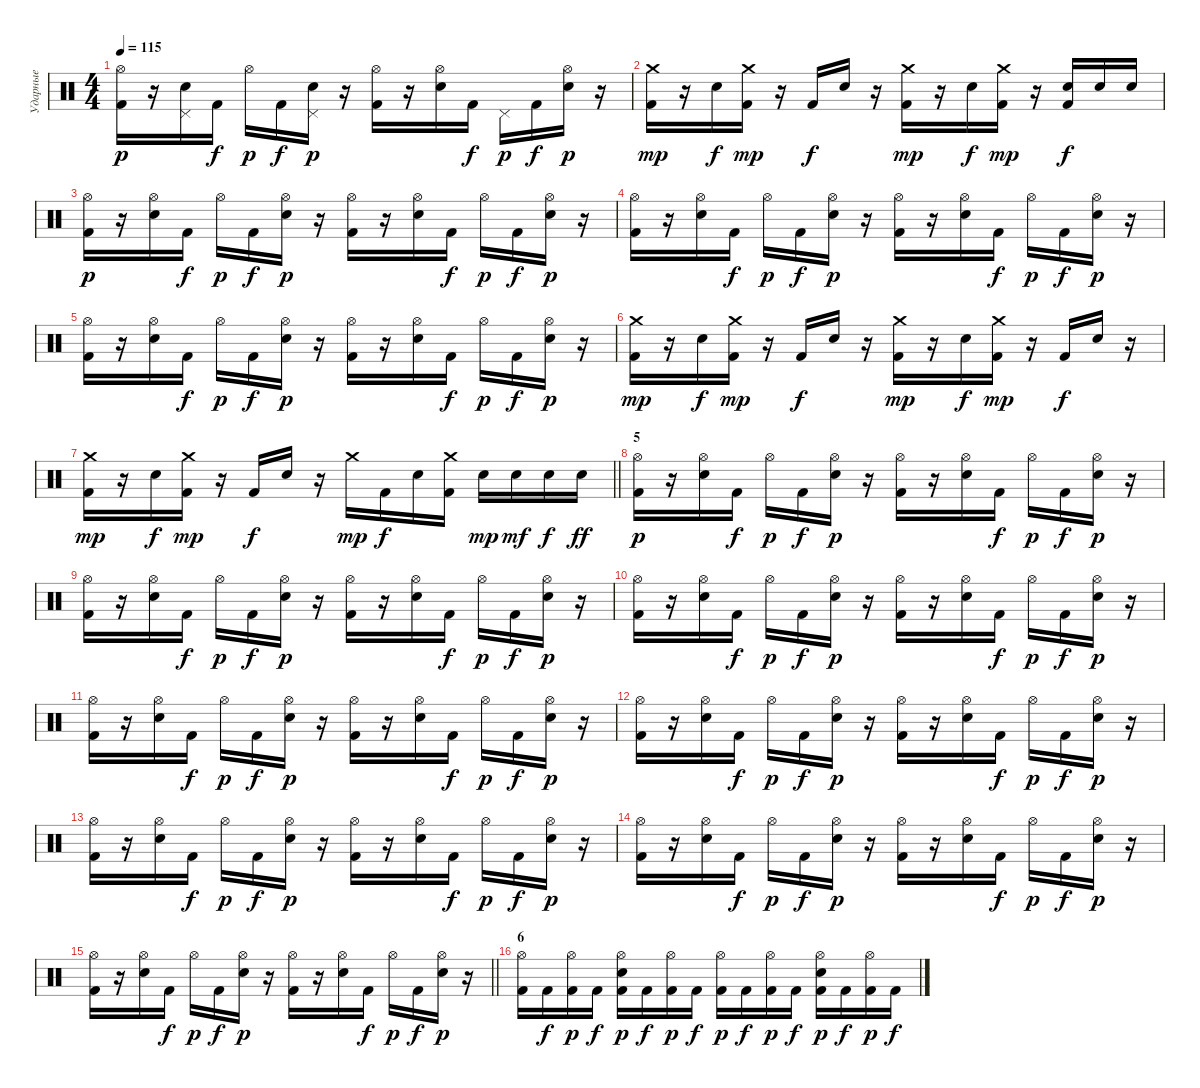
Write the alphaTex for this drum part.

\track ("Ударные" "Ударные") {instrument percussion}
\staff {score}
\articulation defaults
\ts (4 4)
\tempo 115
\clef neutral
\ks c
("Hi-Hat (open)" "Kick (hit) 2").16{dy p} r.16 ("Pedal Hi-Hat (hit)" "Snare (hit) 2").16 "Kick (hit) 2".16{dy f} "Hi-Hat (open)".16{dy p} "Kick (hit) 2".16{dy f} ("Pedal Hi-Hat (hit)" "Snare (hit) 2").16{dy p} r.16 ("Hi-Hat (open)" "Kick (hit) 2").16 r.16 ("Hi-Hat (open)" "Snare (hit) 2").16 "Kick (hit) 2".16{dy f} "Pedal Hi-Hat (hit)".16{dy p} "Kick (hit) 2".16{dy f} ("Hi-Hat (open)" "Snare (hit) 2").16{dy p} r.16 |
("Crash medium (hit)" "Kick (hit) 2").16{dy mp} r.16 "Snare (hit) 2".16{dy f} ("Crash medium (hit)" "Kick (hit) 2").16{dy mp} r.16 "Kick (hit) 2".16{dy f} "Snare (hit) 2".16 r.16 ("Crash medium (hit)" "Kick (hit) 2").16{dy mp} r.16 "Snare (hit) 2".16{dy f} ("Crash medium (hit)" "Kick (hit) 2").16{dy mp} r.16 ("Snare (hit) 2" "Kick (hit) 2").16{dy f} "Snare (hit) 2".16 "Snare (hit) 2".16 |
("Hi-Hat (open)" "Kick (hit) 2").16{dy p} r.16 ("Hi-Hat (open)" "Snare (hit) 2").16 "Kick (hit) 2".16{dy f} "Hi-Hat (open)".16{dy p} "Kick (hit) 2".16{dy f} ("Hi-Hat (open)" "Snare (hit) 2").16{dy p} r.16 ("Hi-Hat (open)" "Kick (hit) 2").16 r.16 ("Hi-Hat (open)" "Snare (hit) 2").16 "Kick (hit) 2".16{dy f} "Hi-Hat (open)".16{dy p} "Kick (hit) 2".16{dy f} ("Hi-Hat (open)" "Snare (hit) 2").16{dy p} r.16 |
("Hi-Hat (open)" "Kick (hit) 2").16 r.16 ("Hi-Hat (open)" "Snare (hit) 2").16 "Kick (hit) 2".16{dy f} "Hi-Hat (open)".16{dy p} "Kick (hit) 2".16{dy f} ("Hi-Hat (open)" "Snare (hit) 2").16{dy p} r.16 ("Hi-Hat (open)" "Kick (hit) 2").16 r.16 ("Hi-Hat (open)" "Snare (hit) 2").16 "Kick (hit) 2".16{dy f} "Hi-Hat (open)".16{dy p} "Kick (hit) 2".16{dy f} ("Hi-Hat (open)" "Snare (hit) 2").16{dy p} r.16 |
("Hi-Hat (open)" "Kick (hit) 2").16 r.16 ("Hi-Hat (open)" "Snare (hit) 2").16 "Kick (hit) 2".16{dy f} "Hi-Hat (open)".16{dy p} "Kick (hit) 2".16{dy f} ("Hi-Hat (open)" "Snare (hit) 2").16{dy p} r.16 ("Hi-Hat (open)" "Kick (hit) 2").16 r.16 ("Hi-Hat (open)" "Snare (hit) 2").16 "Kick (hit) 2".16{dy f} "Hi-Hat (open)".16{dy p} "Kick (hit) 2".16{dy f} ("Hi-Hat (open)" "Snare (hit) 2").16{dy p} r.16 |
("Crash medium (hit)" "Kick (hit) 2").16{dy mp} r.16 "Snare (hit) 2".16{dy f} ("Crash medium (hit)" "Kick (hit) 2").16{dy mp} r.16 "Kick (hit) 2".16{dy f} "Snare (hit) 2".16 r.16 ("Crash medium (hit)" "Kick (hit) 2").16{dy mp} r.16 "Snare (hit) 2".16{dy f} ("Crash medium (hit)" "Kick (hit) 2").16{dy mp} r.16 "Kick (hit) 2".16{dy f} "Snare (hit) 2".16 r.16 |
\barLineRight lightlight
("Crash medium (hit)" "Kick (hit) 2").16{dy mp} r.16 "Snare (hit) 2".16{dy f} ("Crash medium (hit)" "Kick (hit) 2").16{dy mp} r.16 "Kick (hit) 2".16{dy f} "Snare (hit) 2".16 r.16 "Crash medium (hit)".16{dy mp} "Kick (hit) 2".16{dy f} "Snare (hit) 2".16 ("Crash medium (hit)" "Kick (hit) 2").16 "Snare (hit) 2".16{dy mp} "Snare (hit) 2".16{dy mf} "Snare (hit) 2".16{dy f} "Snare (hit) 2".16{dy ff} |
\section ("" "5")
("Hi-Hat (open)" "Kick (hit) 2").16{dy p} r.16 ("Hi-Hat (open)" "Snare (hit) 2").16 "Kick (hit) 2".16{dy f} "Hi-Hat (open)".16{dy p} "Kick (hit) 2".16{dy f} ("Hi-Hat (open)" "Snare (hit) 2").16{dy p} r.16 ("Hi-Hat (open)" "Kick (hit) 2").16 r.16 ("Hi-Hat (open)" "Snare (hit) 2").16 "Kick (hit) 2".16{dy f} "Hi-Hat (open)".16{dy p} "Kick (hit) 2".16{dy f} ("Hi-Hat (open)" "Snare (hit) 2").16{dy p} r.16 |
("Hi-Hat (open)" "Kick (hit) 2").16 r.16 ("Hi-Hat (open)" "Snare (hit) 2").16 "Kick (hit) 2".16{dy f} "Hi-Hat (open)".16{dy p} "Kick (hit) 2".16{dy f} ("Hi-Hat (open)" "Snare (hit) 2").16{dy p} r.16 ("Hi-Hat (open)" "Kick (hit) 2").16 r.16 ("Hi-Hat (open)" "Snare (hit) 2").16 "Kick (hit) 2".16{dy f} "Hi-Hat (open)".16{dy p} "Kick (hit) 2".16{dy f} ("Hi-Hat (open)" "Snare (hit) 2").16{dy p} r.16 |
("Hi-Hat (open)" "Kick (hit) 2").16 r.16 ("Hi-Hat (open)" "Snare (hit) 2").16 "Kick (hit) 2".16{dy f} "Hi-Hat (open)".16{dy p} "Kick (hit) 2".16{dy f} ("Hi-Hat (open)" "Snare (hit) 2").16{dy p} r.16 ("Hi-Hat (open)" "Kick (hit) 2").16 r.16 ("Hi-Hat (open)" "Snare (hit) 2").16 "Kick (hit) 2".16{dy f} "Hi-Hat (open)".16{dy p} "Kick (hit) 2".16{dy f} ("Hi-Hat (open)" "Snare (hit) 2").16{dy p} r.16 |
("Hi-Hat (open)" "Kick (hit) 2").16 r.16 ("Hi-Hat (open)" "Snare (hit) 2").16 "Kick (hit) 2".16{dy f} "Hi-Hat (open)".16{dy p} "Kick (hit) 2".16{dy f} ("Hi-Hat (open)" "Snare (hit) 2").16{dy p} r.16 ("Hi-Hat (open)" "Kick (hit) 2").16 r.16 ("Hi-Hat (open)" "Snare (hit) 2").16 "Kick (hit) 2".16{dy f} "Hi-Hat (open)".16{dy p} "Kick (hit) 2".16{dy f} ("Hi-Hat (open)" "Snare (hit) 2").16{dy p} r.16 |
("Hi-Hat (open)" "Kick (hit) 2").16 r.16 ("Hi-Hat (open)" "Snare (hit) 2").16 "Kick (hit) 2".16{dy f} "Hi-Hat (open)".16{dy p} "Kick (hit) 2".16{dy f} ("Hi-Hat (open)" "Snare (hit) 2").16{dy p} r.16 ("Hi-Hat (open)" "Kick (hit) 2").16 r.16 ("Hi-Hat (open)" "Snare (hit) 2").16 "Kick (hit) 2".16{dy f} "Hi-Hat (open)".16{dy p} "Kick (hit) 2".16{dy f} ("Hi-Hat (open)" "Snare (hit) 2").16{dy p} r.16 |
("Hi-Hat (open)" "Kick (hit) 2").16 r.16 ("Hi-Hat (open)" "Snare (hit) 2").16 "Kick (hit) 2".16{dy f} "Hi-Hat (open)".16{dy p} "Kick (hit) 2".16{dy f} ("Hi-Hat (open)" "Snare (hit) 2").16{dy p} r.16 ("Hi-Hat (open)" "Kick (hit) 2").16 r.16 ("Hi-Hat (open)" "Snare (hit) 2").16 "Kick (hit) 2".16{dy f} "Hi-Hat (open)".16{dy p} "Kick (hit) 2".16{dy f} ("Hi-Hat (open)" "Snare (hit) 2").16{dy p} r.16 |
("Hi-Hat (open)" "Kick (hit) 2").16 r.16 ("Hi-Hat (open)" "Snare (hit) 2").16 "Kick (hit) 2".16{dy f} "Hi-Hat (open)".16{dy p} "Kick (hit) 2".16{dy f} ("Hi-Hat (open)" "Snare (hit) 2").16{dy p} r.16 ("Hi-Hat (open)" "Kick (hit) 2").16 r.16 ("Hi-Hat (open)" "Snare (hit) 2").16 "Kick (hit) 2".16{dy f} "Hi-Hat (open)".16{dy p} "Kick (hit) 2".16{dy f} ("Hi-Hat (open)" "Snare (hit) 2").16{dy p} r.16 |
\barLineRight lightlight
("Hi-Hat (open)" "Kick (hit) 2").16 r.16 ("Hi-Hat (open)" "Snare (hit) 2").16 "Kick (hit) 2".16{dy f} "Hi-Hat (open)".16{dy p} "Kick (hit) 2".16{dy f} ("Hi-Hat (open)" "Snare (hit) 2").16{dy p} r.16 ("Hi-Hat (open)" "Kick (hit) 2").16 r.16 ("Hi-Hat (open)" "Snare (hit) 2").16 "Kick (hit) 2".16{dy f} "Hi-Hat (open)".16{dy p} "Kick (hit) 2".16{dy f} ("Hi-Hat (open)" "Snare (hit) 2").16{dy p} r.16 |
\section ("" "6")
("Hi-Hat (open)" "Kick (hit) 2").16 "Kick (hit) 2".16{dy f} ("Hi-Hat (open)" "Kick (hit) 2").16{dy p} "Kick (hit) 2".16{dy f} ("Hi-Hat (open)" "Snare (hit) 2" "Kick (hit) 2").16{dy p} "Kick (hit) 2".16{dy f} ("Hi-Hat (open)" "Kick (hit) 2").16{dy p} "Kick (hit) 2".16{dy f} ("Hi-Hat (open)" "Kick (hit) 2").16{dy p} "Kick (hit) 2".16{dy f} ("Hi-Hat (open)" "Kick (hit) 2").16{dy p} "Kick (hit) 2".16{dy f} ("Hi-Hat (open)" "Snare (hit) 2" "Kick (hit) 2").16{dy p} "Kick (hit) 2".16{dy f} ("Hi-Hat (open)" "Kick (hit) 2").16{dy p} "Kick (hit) 2".16{dy f}
